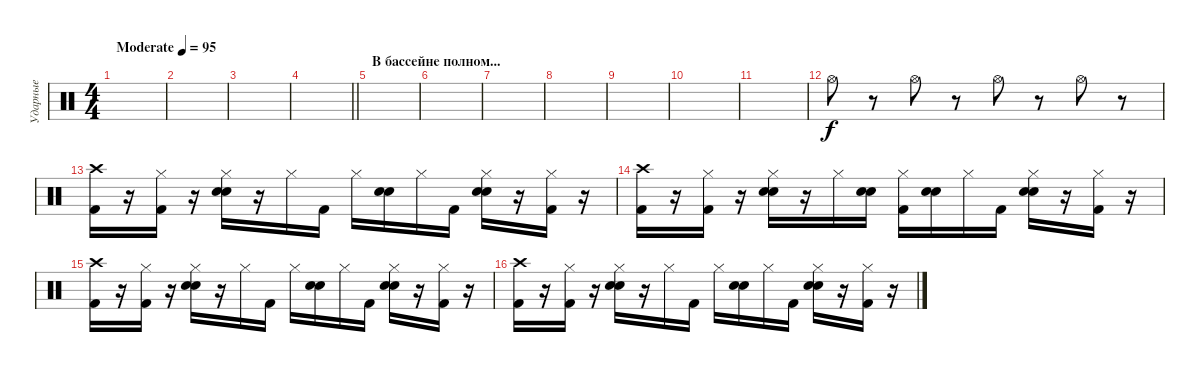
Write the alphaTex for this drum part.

\track ("Ударные" "Ударные") {instrument percussion}
\staff {score}
\articulation defaults
\ts (4 4)
\tempo (95 "Moderate")
\clef neutral
\ks c
|
|
|
\barLineRight lightlight
|
\section ("" "В бассейне полном...")
|
|
|
|
|
|
|
"Hi-Hat (open)".8 r.8 "Hi-Hat (open)".8 r.8 "Hi-Hat (open)".8 r.8 "Hi-Hat (open)".8 r.8 |
("Crash high (hit)" "Kick (hit) 2").16 r.16 ("Hi-Hat (closed)" "Kick (hit) 2").16 r.16 ("Hi-Hat (closed)" "Snare (hit) 2" "Electric Snare (hit)").16 r.16 "Hi-Hat (closed)".16 "Kick (hit) 2".16 "Hi-Hat (closed)".16 ("Snare (hit) 2" "Electric Snare (hit)").16 "Hi-Hat (closed)".16 "Kick (hit) 2".16 ("Hi-Hat (closed)" "Snare (hit) 2" "Electric Snare (hit)").16 r.16 ("Hi-Hat (closed)" "Kick (hit) 2").16 r.16 |
("Crash high (hit)" "Kick (hit) 2").16 r.16 ("Hi-Hat (closed)" "Kick (hit) 2").16 r.16 ("Hi-Hat (closed)" "Snare (hit) 2" "Electric Snare (hit)").16 r.16 "Hi-Hat (closed)".16 ("Snare (hit) 2" "Electric Snare (hit)").16 ("Hi-Hat (closed)" "Kick (hit) 2").16 ("Snare (hit) 2" "Electric Snare (hit)").16 "Hi-Hat (closed)".16 "Kick (hit) 2".16 ("Hi-Hat (closed)" "Snare (hit) 2" "Electric Snare (hit)").16 r.16 ("Hi-Hat (closed)" "Kick (hit) 2").16 r.16 |
("Crash high (hit)" "Kick (hit) 2").16 r.16 ("Hi-Hat (closed)" "Kick (hit) 2").16 r.16 ("Hi-Hat (closed)" "Snare (hit) 2" "Electric Snare (hit)").16 r.16 "Hi-Hat (closed)".16 "Kick (hit) 2".16 "Hi-Hat (closed)".16 ("Snare (hit) 2" "Electric Snare (hit)").16 "Hi-Hat (closed)".16 "Kick (hit) 2".16 ("Hi-Hat (closed)" "Snare (hit) 2" "Electric Snare (hit)").16 r.16 ("Hi-Hat (closed)" "Kick (hit) 2").16 r.16 |
("Crash high (hit)" "Kick (hit) 2").16 r.16 ("Hi-Hat (closed)" "Kick (hit) 2").16 r.16 ("Hi-Hat (closed)" "Snare (hit) 2" "Electric Snare (hit)").16 r.16 "Hi-Hat (closed)".16 "Kick (hit) 2".16 "Hi-Hat (closed)".16 ("Snare (hit) 2" "Electric Snare (hit)").16 "Hi-Hat (closed)".16 "Kick (hit) 2".16 ("Hi-Hat (closed)" "Snare (hit) 2" "Electric Snare (hit)").16 r.16 ("Hi-Hat (closed)" "Kick (hit) 2").16 r.16
